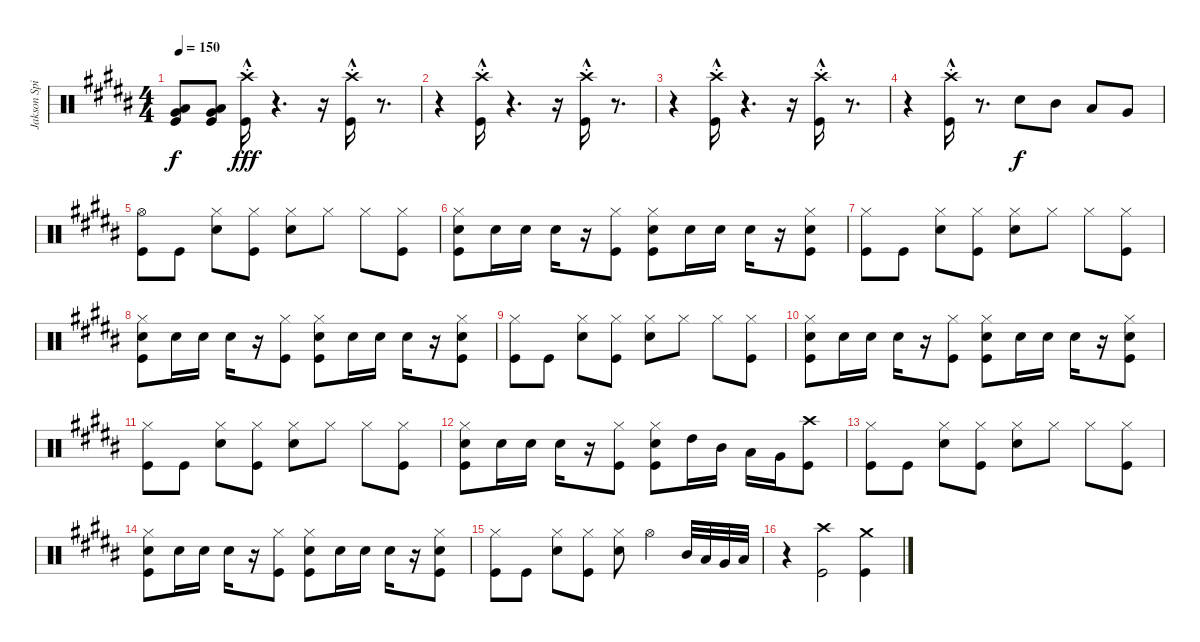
\track ("Jakson Spires Drums" "Jakson Spi") {instrument percussion}
\staff {score}
\articulation defaults
\ts (4 4)
\tempo 150
\clef neutral
\ks b
("Very Low Tom (hit)" "Low Floor Tom (hit)" "Kick (hit)").8{dy f} ("Very Low Tom (hit)" "Low Floor Tom (hit)" "Kick (hit)").8 ("Crash high (hit)"{st} "Kick (hit)"{hac st}).16{dy fff} r.4{d} r.16 ("Crash high (hit)"{st} "Kick (hit)"{hac st}).16 r.8{d} |
r.4 ("Crash high (hit)"{st} "Kick (hit)"{hac st}).16 r.4{d} r.16 ("Crash high (hit)"{st} "Kick (hit)"{hac st}).16 r.8{d} |
r.4 ("Crash high (hit)"{st} "Kick (hit)"{hac st}).16 r.4{d} r.16 ("Crash high (hit)"{st} "Kick (hit)"{hac st}).16 r.8{d} |
r.4 ("Crash high (hit)"{st} "Kick (hit)"{hac st}).16 r.8{d} "Snare (hit) 2".8{dy f} "Mid Tom (hit)".8 "Low Tom (hit)".8 "Very Low Tom (hit)".8 |
("Hi-Hat (open)" "Kick (hit)").8 "Kick (hit)".8 ("Hi-Hat (closed)" "Snare (hit) 2").8 ("Hi-Hat (closed)" "Kick (hit)").8 ("Hi-Hat (closed)" "Snare (hit) 2").8 "Hi-Hat (closed)".8 "Hi-Hat (closed)".8 ("Hi-Hat (closed)" "Kick (hit)").8 |
("Hi-Hat (closed)" "Snare (hit) 2" "Kick (hit)").8 "Snare (hit) 2".16 "Snare (hit) 2".16 "Snare (hit) 2".16 r.16 ("Hi-Hat (closed)" "Kick (hit)").8 ("Hi-Hat (closed)" "Snare (hit) 2" "Kick (hit)").8 "Snare (hit) 2".16 "Snare (hit) 2".16 "Snare (hit) 2".16 r.16 ("Hi-Hat (closed)" "Snare (hit) 2" "Kick (hit)").8 |
("Hi-Hat (closed)" "Kick (hit)").8 "Kick (hit)".8 ("Hi-Hat (closed)" "Snare (hit) 2").8 ("Hi-Hat (closed)" "Kick (hit)").8 ("Hi-Hat (closed)" "Snare (hit) 2").8 "Hi-Hat (closed)".8 "Hi-Hat (closed)".8 ("Hi-Hat (closed)" "Kick (hit)").8 |
("Hi-Hat (closed)" "Snare (hit) 2" "Kick (hit)").8 "Snare (hit) 2".16 "Snare (hit) 2".16 "Snare (hit) 2".16 r.16 ("Hi-Hat (closed)" "Kick (hit)").8 ("Hi-Hat (closed)" "Snare (hit) 2" "Kick (hit)").8 "Snare (hit) 2".16 "Snare (hit) 2".16 "Snare (hit) 2".16 r.16 ("Hi-Hat (closed)" "Snare (hit) 2" "Kick (hit)").8 |
("Hi-Hat (closed)" "Kick (hit)").8 "Kick (hit)".8 ("Hi-Hat (closed)" "Snare (hit) 2").8 ("Hi-Hat (closed)" "Kick (hit)").8 ("Hi-Hat (closed)" "Snare (hit) 2").8 "Hi-Hat (closed)".8 "Hi-Hat (closed)".8 ("Hi-Hat (closed)" "Kick (hit)").8 |
("Hi-Hat (closed)" "Snare (hit) 2" "Kick (hit)").8 "Snare (hit) 2".16 "Snare (hit) 2".16 "Snare (hit) 2".16 r.16 ("Hi-Hat (closed)" "Kick (hit)").8 ("Hi-Hat (closed)" "Snare (hit) 2" "Kick (hit)").8 "Snare (hit) 2".16 "Snare (hit) 2".16 "Snare (hit) 2".16 r.16 ("Hi-Hat (closed)" "Snare (hit) 2" "Kick (hit)").8 |
("Hi-Hat (closed)" "Kick (hit)").8 "Kick (hit)".8 ("Hi-Hat (closed)" "Snare (hit) 2").8 ("Hi-Hat (closed)" "Kick (hit)").8 ("Hi-Hat (closed)" "Snare (hit) 2").8 "Hi-Hat (closed)".8 "Hi-Hat (closed)".8 ("Hi-Hat (closed)" "Kick (hit)").8 |
("Hi-Hat (closed)" "Snare (hit) 2" "Kick (hit)").8 "Snare (hit) 2".16 "Snare (hit) 2".16 "Snare (hit) 2".16 r.16 ("Hi-Hat (closed)" "Kick (hit)").8 ("Hi-Hat (closed)" "Snare (hit) 2" "Kick (hit)").8 "High Tom (hit)".16 "Mid Tom (hit)".16 "Low Tom (hit)".16 "Very Low Tom (hit)".16 ("Crash high (hit)" "Kick (hit)").8 |
("Hi-Hat (closed)" "Kick (hit)").8 "Kick (hit)".8 ("Hi-Hat (closed)" "Snare (hit) 2").8 ("Hi-Hat (closed)" "Kick (hit)").8 ("Hi-Hat (closed)" "Snare (hit) 2").8 "Hi-Hat (closed)".8 "Hi-Hat (closed)".8 ("Hi-Hat (closed)" "Kick (hit)").8 |
("Hi-Hat (closed)" "Snare (hit) 2" "Kick (hit)").8 "Snare (hit) 2".16 "Snare (hit) 2".16 "Snare (hit) 2".16 r.16 ("Hi-Hat (closed)" "Kick (hit)").8 ("Hi-Hat (closed)" "Snare (hit) 2" "Kick (hit)").8 "Snare (hit) 2".16 "Snare (hit) 2".16 "Snare (hit) 2".16 r.16 ("Hi-Hat (closed)" "Snare (hit) 2" "Kick (hit)").8 |
("Hi-Hat (closed)" "Kick (hit)").8 "Kick (hit)".8 ("Hi-Hat (closed)" "Snare (hit) 2").8 ("Hi-Hat (closed)" "Kick (hit)").8 ("Hi-Hat (closed)" "Snare (hit) 2").8 "Hi-Hat (open)".4 "Mid Tom (hit)".32 "Low Tom (hit)".32 "Very Low Tom (hit)".32 "Low Floor Tom (hit)".32 |
r.4 ("Crash high (hit)" "Kick (hit)").2 ("Crash medium (hit)" "Kick (hit)").4
